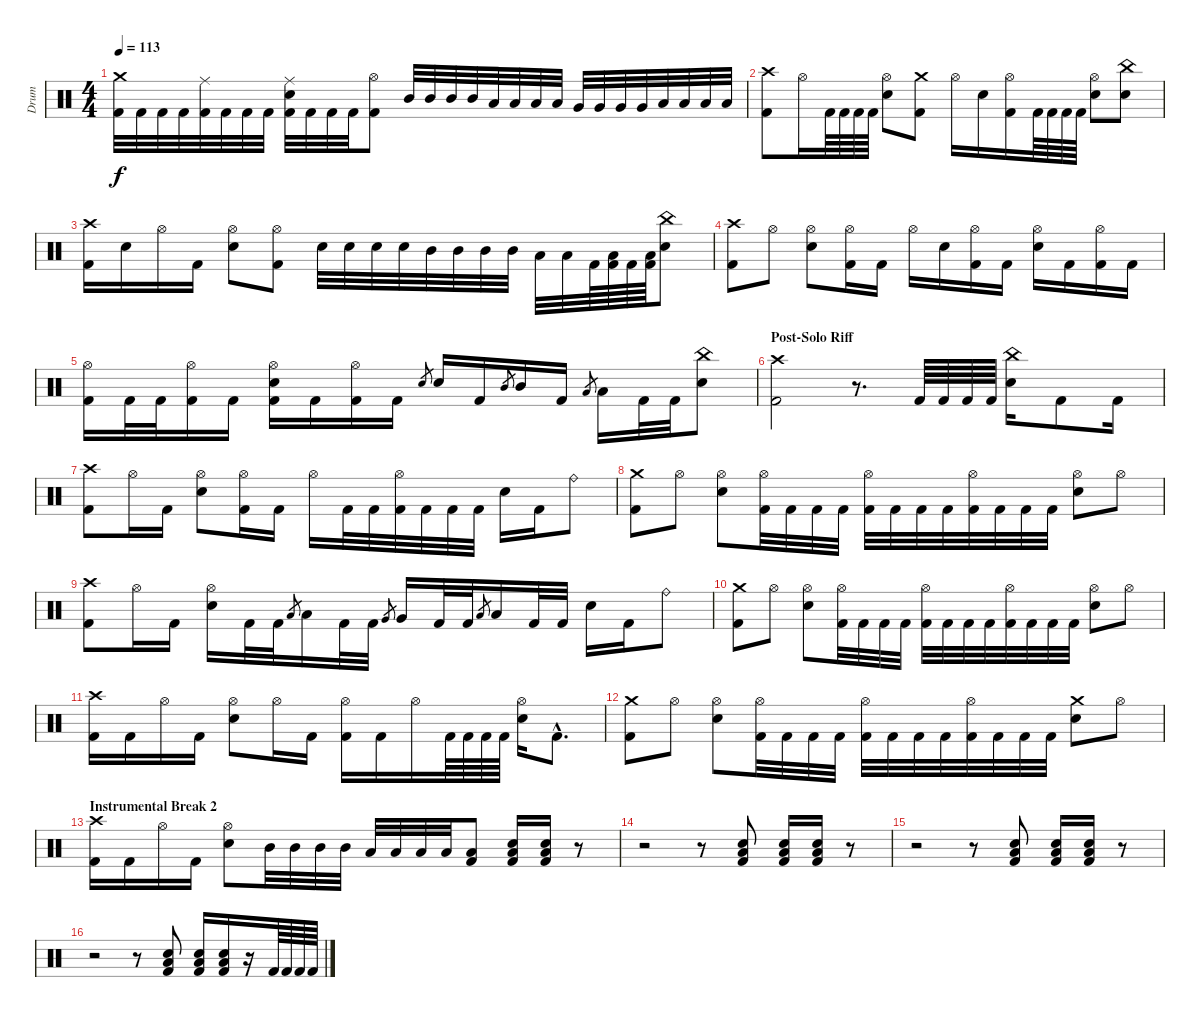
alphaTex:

\track ("Drum" "Drum") {instrument percussion}
\staff {score}
\articulation defaults
\ts (4 4)
\tempo 113
\clef neutral
\ks c
("Crash medium (hit)" "Kick (hit) 2").32{dy f} "Kick (hit) 2".32 "Kick (hit) 2".32 "Kick (hit) 2".32 ("Ride (middle)" "Kick (hit) 2").32 "Kick (hit) 2".32 "Kick (hit) 2".32 "Kick (hit) 2".32 ("Ride (middle)" "Electric Snare (hit)" "Kick (hit) 2").32 "Kick (hit) 2".32 "Kick (hit) 2".32 "Kick (hit) 2".32 ("Hi-Hat (open)" "Kick (hit) 2").8 "Mid Tom (hit)".32 "Mid Tom (hit)".32 "Mid Tom (hit)".32 "Mid Tom (hit)".32 "Low Tom (hit)".32 "Low Tom (hit)".32 "Low Tom (hit)".32 "Low Tom (hit)".32 "Very Low Tom (hit)".32 "Very Low Tom (hit)".32 "Very Low Tom (hit)".32 "Very Low Tom (hit)".32 "Low Floor Tom (hit)".32 "Low Floor Tom (hit)".32 "Low Floor Tom (hit)".32 "Low Floor Tom (hit)".32 |
("Crash high (hit)" "Kick (hit) 2").8 "Hi-Hat (open)".16 "Kick (hit) 2".64 "Kick (hit) 2".64 "Kick (hit) 2".64 "Kick (hit) 2".64 ("Hi-Hat (open)" "Electric Snare (hit)").8 ("Crash medium (hit)" "Kick (hit) 2").8 "Hi-Hat (open)".16 "Electric Snare (hit)".16 ("Hi-Hat (open)" "Kick (hit) 2").16 "Kick (hit) 2".64 "Kick (hit) 2".64 "Kick (hit) 2".64 "Kick (hit) 2".64 ("Hi-Hat (open)" "Electric Snare (hit)").8 ("China (hit)" "Electric Snare (hit)").8 |
("Crash high (hit)" "Kick (hit) 2").16 "Electric Snare (hit)".16 "Hi-Hat (open)".16 "Kick (hit) 2".16 ("Hi-Hat (open)" "Electric Snare (hit)").8 ("Hi-Hat (open)" "Kick (hit) 2").8 "Electric Snare (hit)".32 "Electric Snare (hit)".32 "Electric Snare (hit)".32 "Electric Snare (hit)".32 "Mid Tom (hit)".32 "Mid Tom (hit)".32 "Mid Tom (hit)".32 "Mid Tom (hit)".32 "Low Tom (hit)".32 "Low Tom (hit)".32 "Kick (hit) 2".64 ("Low Tom (hit)" "Kick (hit) 2").64 "Kick (hit) 2".64 ("Low Tom (hit)" "Kick (hit) 2").64 ("China (hit)" "Electric Snare (hit)").8 |
("Crash high (hit)" "Kick (hit) 2").8 "Hi-Hat (open)".8 ("Hi-Hat (open)" "Electric Snare (hit)").8 ("Hi-Hat (open)" "Kick (hit) 2").16 "Kick (hit) 2".16 "Hi-Hat (open)".16 "Electric Snare (hit)".16 ("Hi-Hat (open)" "Kick (hit) 2").16 "Kick (hit) 2".16 ("Hi-Hat (open)" "Electric Snare (hit)").16 "Kick (hit) 2".16 ("Hi-Hat (open)" "Kick (hit) 2").16 "Kick (hit) 2".16 |
("Hi-Hat (open)" "Kick (hit) 2").16 "Kick (hit) 2".32 "Kick (hit) 2".32 ("Hi-Hat (open)" "Kick (hit) 2").16 "Kick (hit) 2".16 ("Hi-Hat (open)" "Electric Snare (hit)" "Kick (hit) 2").16 "Kick (hit) 2".16 ("Hi-Hat (open)" "Kick (hit) 2").16 "Kick (hit) 2".16 "Electric Snare (hit)".8{gr} "Electric Snare (hit)".16 "Kick (hit) 2".16 "Mid Tom (hit)".8{gr} "Mid Tom (hit)".16 "Kick (hit) 2".16 "Low Tom (hit)".8{gr} "Low Tom (hit)".16 "Kick (hit) 2".32 "Kick (hit) 2".32 ("China (hit)" "Electric Snare (hit)").8 |
\section ("" "Post-Solo Riff")
("Crash high (hit)" "Kick (hit) 2").2 r.8{d} "Kick (hit) 2".64 "Kick (hit) 2".64 "Kick (hit) 2".64 "Kick (hit) 2".64 ("China (hit)" "Electric Snare (hit)").16 "Kick (hit) 2".8 "Kick (hit) 2".16 |
("Crash high (hit)" "Kick (hit) 2").8 "Hi-Hat (open)".16 "Kick (hit) 2".16 ("Hi-Hat (open)" "Electric Snare (hit)").8 ("Hi-Hat (open)" "Kick (hit) 2").16 "Kick (hit) 2".16 "Hi-Hat (open)".16 "Kick (hit) 2".32 "Kick (hit) 2".32 ("Hi-Hat (open)" "Kick (hit) 2").32 "Kick (hit) 2".32 "Kick (hit) 2".32 "Kick (hit) 2".32 "Electric Snare (hit)".16 "Kick (hit) 2".16 "Ride (bell)".8 |
("Crash medium (hit)" "Kick (hit) 2").8 "Hi-Hat (open)".8 ("Hi-Hat (open)" "Electric Snare (hit)").8 ("Hi-Hat (open)" "Kick (hit) 2").32 "Kick (hit) 2".32 "Kick (hit) 2".32 "Kick (hit) 2".32 ("Hi-Hat (open)" "Kick (hit) 2").32 "Kick (hit) 2".32 "Kick (hit) 2".32 "Kick (hit) 2".32 ("Hi-Hat (open)" "Kick (hit) 2").32 "Kick (hit) 2".32 "Kick (hit) 2".32 "Kick (hit) 2".32 ("Hi-Hat (open)" "Electric Snare (hit)").8 "Hi-Hat (open)".8 |
("Crash high (hit)" "Kick (hit) 2").8 "Hi-Hat (open)".16 "Kick (hit) 2".16 ("Hi-Hat (open)" "Electric Snare (hit)").16 "Kick (hit) 2".32 "Kick (hit) 2".32 "Low Tom (hit)".8{gr} "Low Tom (hit)".16 "Kick (hit) 2".32 "Kick (hit) 2".32 "Very Low Tom (hit)".8{gr} "Very Low Tom (hit)".16 "Kick (hit) 2".32 "Kick (hit) 2".32 "Low Floor Tom (hit)".8{gr} "Low Floor Tom (hit)".16 "Kick (hit) 2".32 "Kick (hit) 2".32 "Electric Snare (hit)".16 "Kick (hit) 2".16 "Ride (bell)".8 |
("Crash medium (hit)" "Kick (hit) 2").8 "Hi-Hat (open)".8 ("Hi-Hat (open)" "Electric Snare (hit)").8 ("Hi-Hat (open)" "Kick (hit) 2").32 "Kick (hit) 2".32 "Kick (hit) 2".32 "Kick (hit) 2".32 ("Hi-Hat (open)" "Kick (hit) 2").32 "Kick (hit) 2".32 "Kick (hit) 2".32 "Kick (hit) 2".32 ("Hi-Hat (open)" "Kick (hit) 2").32 "Kick (hit) 2".32 "Kick (hit) 2".32 "Kick (hit) 2".32 ("Hi-Hat (open)" "Electric Snare (hit)").8 "Hi-Hat (open)".8 |
("Crash high (hit)" "Kick (hit) 2").16 "Kick (hit) 2".16 "Hi-Hat (open)".16 "Kick (hit) 2".16 ("Hi-Hat (open)" "Electric Snare (hit)").8 "Hi-Hat (open)".16 "Kick (hit) 2".16 ("Hi-Hat (open)" "Kick (hit) 2").16 "Kick (hit) 2".16 "Hi-Hat (open)".16 "Kick (hit) 2".64 "Kick (hit) 2".64 "Kick (hit) 2".64 "Kick (hit) 2".64 ("Hi-Hat (open)" "Electric Snare (hit)").16 "Kick (hit) 2"{hac}.8{d} |
("Crash medium (hit)" "Kick (hit) 2").8 "Hi-Hat (open)".8 ("Hi-Hat (open)" "Electric Snare (hit)").8 ("Hi-Hat (open)" "Kick (hit) 2").32 "Kick (hit) 2".32 "Kick (hit) 2".32 "Kick (hit) 2".32 ("Hi-Hat (open)" "Kick (hit) 2").32 "Kick (hit) 2".32 "Kick (hit) 2".32 "Kick (hit) 2".32 ("Hi-Hat (open)" "Kick (hit) 2").32 "Kick (hit) 2".32 "Kick (hit) 2".32 "Kick (hit) 2".32 ("Crash medium (hit)" "Electric Snare (hit)").8 "Hi-Hat (open)".8 |
\section ("" "Instrumental Break 2")
("Crash high (hit)" "Kick (hit) 2").16 "Kick (hit) 2".16 "Hi-Hat (open)".16 "Kick (hit) 2".16 ("Hi-Hat (open)" "Electric Snare (hit)").8 "Mid Tom (hit)".32 "Mid Tom (hit)".32 "Mid Tom (hit)".32 "Mid Tom (hit)".32 "Low Tom (hit)".32 "Low Tom (hit)".32 "Low Tom (hit)".32 "Low Tom (hit)".32 ("Low Floor Tom (hit)" "Kick (hit) 2").8 ("Low Floor Tom (hit)" "Electric Snare (hit)" "Kick (hit) 2").16 ("Low Floor Tom (hit)" "Electric Snare (hit)" "Kick (hit) 2").16 r.8 |
r.2 r.8 ("Low Floor Tom (hit)" "Electric Snare (hit)" "Kick (hit) 2").8 ("Low Floor Tom (hit)" "Electric Snare (hit)" "Kick (hit) 2").16 ("Low Floor Tom (hit)" "Electric Snare (hit)" "Kick (hit) 2").16 r.8 |
r.2 r.8 ("Low Floor Tom (hit)" "Electric Snare (hit)" "Kick (hit) 2").8 ("Low Floor Tom (hit)" "Electric Snare (hit)" "Kick (hit) 2").16 ("Low Floor Tom (hit)" "Electric Snare (hit)" "Kick (hit) 2").16 r.8 |
r.2 r.8 ("Low Floor Tom (hit)" "Electric Snare (hit)" "Kick (hit) 2").8 ("Low Floor Tom (hit)" "Electric Snare (hit)" "Kick (hit) 2").16 ("Low Floor Tom (hit)" "Electric Snare (hit)" "Kick (hit) 2").16 r.16 "Kick (hit) 2".64 "Kick (hit) 2".64 "Kick (hit) 2".64 "Kick (hit) 2".64
